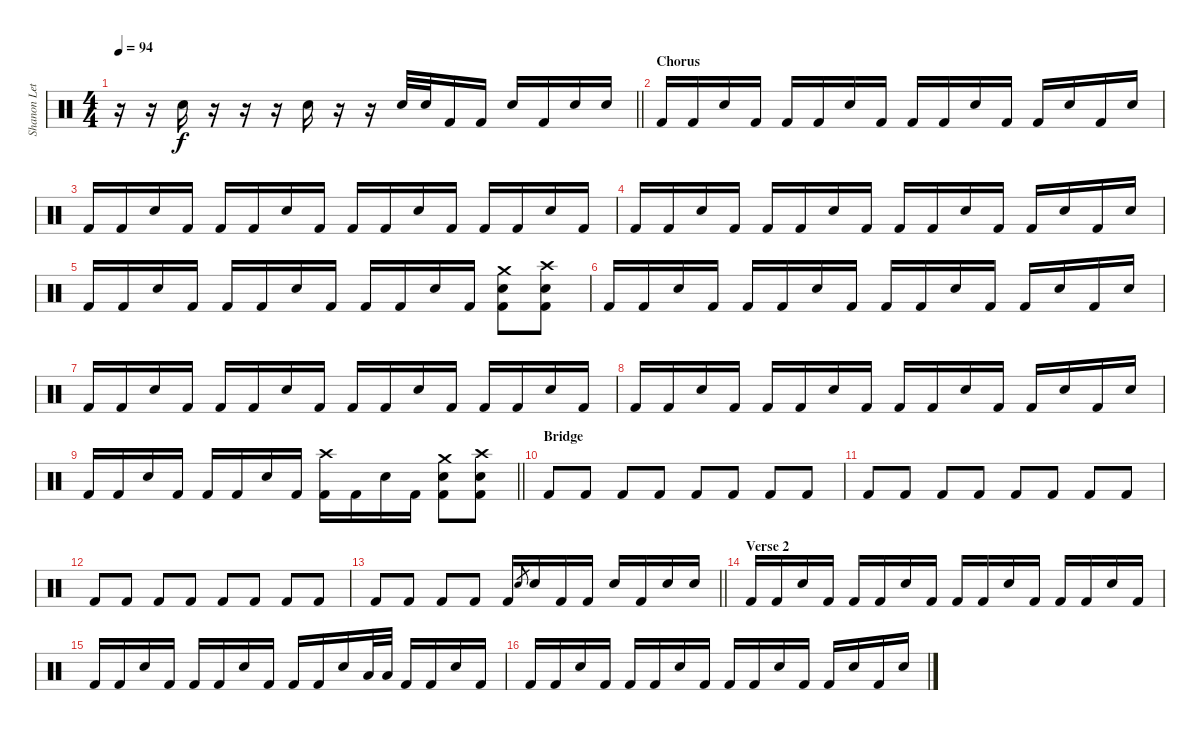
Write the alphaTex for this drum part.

\track ("Shanon Leto" "Shanon Let") {instrument percussion}
\staff {score}
\articulation defaults
\ts (4 4)
\tempo 94
\clef neutral
\barLineRight lightlight
\ks c
r.16{dy f} r.16 "Snare (hit) 2".16 r.16 r.16 r.16 "Snare (hit) 2".16 r.16 r.16 "Snare (hit) 2".32 "Snare (hit) 2".32 "Kick (hit) 2".16 "Kick (hit) 2".16 "Snare (hit) 2".16 "Kick (hit) 2".16 "Snare (hit) 2".16 "Snare (hit) 2".16 |
\section ("" "Chorus")
"Kick (hit) 2".16 "Kick (hit) 2".16 "Snare (hit) 2".16 "Kick (hit) 2".16 "Kick (hit) 2".16 "Kick (hit) 2".16 "Snare (hit) 2".16 "Kick (hit) 2".16 "Kick (hit) 2".16 "Kick (hit) 2".16 "Snare (hit) 2".16 "Kick (hit) 2".16 "Kick (hit) 2".16 "Snare (hit) 2".16 "Kick (hit) 2".16 "Snare (hit) 2".16 |
"Kick (hit) 2".16 "Kick (hit) 2".16 "Snare (hit) 2".16 "Kick (hit) 2".16 "Kick (hit) 2".16 "Kick (hit) 2".16 "Snare (hit) 2".16 "Kick (hit) 2".16 "Kick (hit) 2".16 "Kick (hit) 2".16 "Snare (hit) 2".16 "Kick (hit) 2".16 "Kick (hit) 2".16 "Kick (hit) 2".16 "Snare (hit) 2".16 "Kick (hit) 2".16 |
"Kick (hit) 2".16 "Kick (hit) 2".16 "Snare (hit) 2".16 "Kick (hit) 2".16 "Kick (hit) 2".16 "Kick (hit) 2".16 "Snare (hit) 2".16 "Kick (hit) 2".16 "Kick (hit) 2".16 "Kick (hit) 2".16 "Snare (hit) 2".16 "Kick (hit) 2".16 "Kick (hit) 2".16 "Snare (hit) 2".16 "Kick (hit) 2".16 "Snare (hit) 2".16 |
"Kick (hit) 2".16 "Kick (hit) 2".16 "Snare (hit) 2".16 "Kick (hit) 2".16 "Kick (hit) 2".16 "Kick (hit) 2".16 "Snare (hit) 2".16 "Kick (hit) 2".16 "Kick (hit) 2".16 "Kick (hit) 2".16 "Snare (hit) 2".16 "Kick (hit) 2".16 ("Crash medium (hit)" "Snare (hit) 2" "Kick (hit) 2").8 ("Crash high (hit)" "Snare (hit) 2" "Kick (hit) 2").8 |
"Kick (hit) 2".16 "Kick (hit) 2".16 "Snare (hit) 2".16 "Kick (hit) 2".16 "Kick (hit) 2".16 "Kick (hit) 2".16 "Snare (hit) 2".16 "Kick (hit) 2".16 "Kick (hit) 2".16 "Kick (hit) 2".16 "Snare (hit) 2".16 "Kick (hit) 2".16 "Kick (hit) 2".16 "Snare (hit) 2".16 "Kick (hit) 2".16 "Snare (hit) 2".16 |
"Kick (hit) 2".16 "Kick (hit) 2".16 "Snare (hit) 2".16 "Kick (hit) 2".16 "Kick (hit) 2".16 "Kick (hit) 2".16 "Snare (hit) 2".16 "Kick (hit) 2".16 "Kick (hit) 2".16 "Kick (hit) 2".16 "Snare (hit) 2".16 "Kick (hit) 2".16 "Kick (hit) 2".16 "Kick (hit) 2".16 "Snare (hit) 2".16 "Kick (hit) 2".16 |
"Kick (hit) 2".16 "Kick (hit) 2".16 "Snare (hit) 2".16 "Kick (hit) 2".16 "Kick (hit) 2".16 "Kick (hit) 2".16 "Snare (hit) 2".16 "Kick (hit) 2".16 "Kick (hit) 2".16 "Kick (hit) 2".16 "Snare (hit) 2".16 "Kick (hit) 2".16 "Kick (hit) 2".16 "Snare (hit) 2".16 "Kick (hit) 2".16 "Snare (hit) 2".16 |
\barLineRight lightlight "Kick (hit) 2".16 "Kick (hit) 2".16 "Snare (hit) 2".16 "Kick (hit) 2".16 "Kick (hit) 2".16 "Kick (hit) 2".16 "Snare (hit) 2".16 "Kick (hit) 2".16
("Crash high (hit)" "Kick (hit) 2").16 "Kick (hit) 2".16 "Snare (hit) 2".16 "Kick (hit) 2".16 ("Crash medium (hit)" "Snare (hit) 2" "Kick (hit) 2").8 ("Crash high (hit)" "Snare (hit) 2" "Kick (hit) 2").8 |
\section ("" "Bridge")
"Kick (hit) 2".8 "Kick (hit) 2".8 "Kick (hit) 2".8 "Kick (hit) 2".8 "Kick (hit) 2".8 "Kick (hit) 2".8 "Kick (hit) 2".8 "Kick (hit) 2".8 |
"Kick (hit) 2".8 "Kick (hit) 2".8 "Kick (hit) 2".8 "Kick (hit) 2".8 "Kick (hit) 2".8 "Kick (hit) 2".8 "Kick (hit) 2".8 "Kick (hit) 2".8 |
"Kick (hit) 2".8 "Kick (hit) 2".8 "Kick (hit) 2".8 "Kick (hit) 2".8 "Kick (hit) 2".8 "Kick (hit) 2".8 "Kick (hit) 2".8 "Kick (hit) 2".8 |
\barLineRight lightlight "Kick (hit) 2".8 "Kick (hit) 2".8 "Kick (hit) 2".8 "Kick (hit) 2".8 "Kick (hit) 2".16 "Snare (hit) 2".8{gr} "Snare (hit) 2".16 "Kick (hit) 2".16 "Kick (hit) 2".16 "Snare (hit) 2".16 "Kick (hit) 2".16 "Snare (hit) 2".16 "Snare (hit) 2".16
|
\section ("" "Verse 2 ")
"Kick (hit) 2".16 "Kick (hit) 2".16 "Snare (hit) 2".16 "Kick (hit) 2".16 "Kick (hit) 2".16 "Kick (hit) 2".16 "Snare (hit) 2".16 "Kick (hit) 2".16 "Kick (hit) 2".16 "Kick (hit) 2".16 "Snare (hit) 2".16 "Kick (hit) 2".16 "Kick (hit) 2".16 "Kick (hit) 2".16 "Snare (hit) 2".16 "Kick (hit) 2".16 |
"Kick (hit) 2".16 "Kick (hit) 2".16 "Snare (hit) 2".16 "Kick (hit) 2".16 "Kick (hit) 2".16 "Kick (hit) 2".16 "Snare (hit) 2".16 "Kick (hit) 2".16 "Kick (hit) 2".16 "Kick (hit) 2".16 "Snare (hit) 2".16 "Low Tom (hit)".32 "Low Tom (hit)".32 "Kick (hit) 2".16 "Kick (hit) 2".16 "Snare (hit) 2".16 "Kick (hit) 2".16 |
"Kick (hit) 2".16 "Kick (hit) 2".16 "Snare (hit) 2".16 "Kick (hit) 2".16 "Kick (hit) 2".16 "Kick (hit) 2".16 "Snare (hit) 2".16 "Kick (hit) 2".16 "Kick (hit) 2".16 "Kick (hit) 2".16 "Snare (hit) 2".16 "Kick (hit) 2".16 "Kick (hit) 2".16 "Snare (hit) 2".16 "Kick (hit) 2".16 "Snare (hit) 2".16
